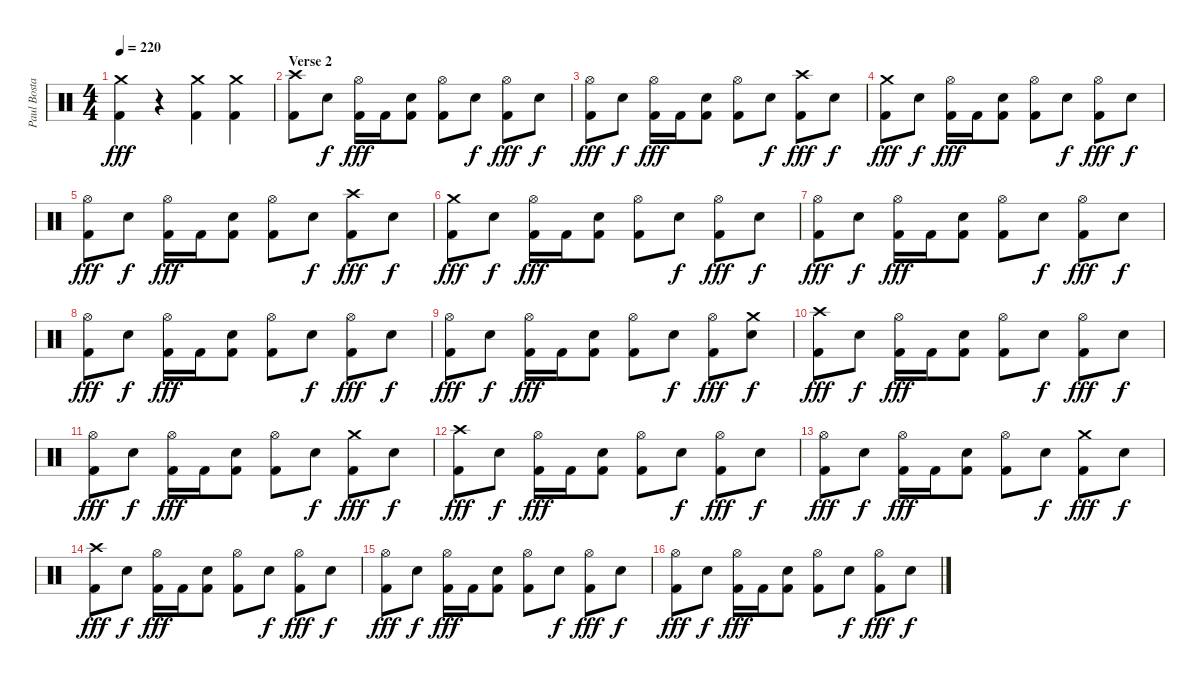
\track ("Paul Bostaph" "Paul Bosta") {instrument percussion}
\staff {score}
\articulation defaults
\ts (4 4)
\tempo 220
\clef neutral
\ks c
("Crash medium (hit)" "Kick (hit) 2").4{dy fff} r.4 ("Crash medium (hit)" "Kick (hit) 2").4 ("Crash medium (hit)" "Kick (hit) 2").4 |
\section ("" "Verse 2")
("Crash high (hit)" "Kick (hit) 2").8 "Snare (hit) 2".8{dy f} ("Hi-Hat (open)" "Kick (hit) 2").16{dy fff} "Kick (hit) 2".16 ("Snare (hit) 2" "Kick (hit) 2").8 ("Hi-Hat (open)" "Kick (hit) 2").8 "Snare (hit) 2".8{dy f} ("Hi-Hat (open)" "Kick (hit) 2").8{dy fff} "Snare (hit) 2".8{dy f} |
("Hi-Hat (open)" "Kick (hit) 2").8{dy fff} "Snare (hit) 2".8{dy f} ("Hi-Hat (open)" "Kick (hit) 2").16{dy fff} "Kick (hit) 2".16 ("Snare (hit) 2" "Kick (hit) 2").8 ("Hi-Hat (open)" "Kick (hit) 2").8 "Snare (hit) 2".8{dy f} ("Crash high (hit)" "Kick (hit) 2").8{dy fff} "Snare (hit) 2".8{dy f} |
("Crash medium (hit)" "Kick (hit) 2").8{dy fff} "Snare (hit) 2".8{dy f} ("Hi-Hat (open)" "Kick (hit) 2").16{dy fff} "Kick (hit) 2".16 ("Snare (hit) 2" "Kick (hit) 2").8 ("Hi-Hat (open)" "Kick (hit) 2").8 "Snare (hit) 2".8{dy f} ("Hi-Hat (open)" "Kick (hit) 2").8{dy fff} "Snare (hit) 2".8{dy f} |
("Hi-Hat (open)" "Kick (hit) 2").8{dy fff} "Snare (hit) 2".8{dy f} ("Hi-Hat (open)" "Kick (hit) 2").16{dy fff} "Kick (hit) 2".16 ("Snare (hit) 2" "Kick (hit) 2").8 ("Hi-Hat (open)" "Kick (hit) 2").8 "Snare (hit) 2".8{dy f} ("Crash high (hit)" "Kick (hit) 2").8{dy fff} "Snare (hit) 2".8{dy f} |
("Crash medium (hit)" "Kick (hit) 2").8{dy fff} "Snare (hit) 2".8{dy f} ("Hi-Hat (open)" "Kick (hit) 2").16{dy fff} "Kick (hit) 2".16 ("Snare (hit) 2" "Kick (hit) 2").8 ("Hi-Hat (open)" "Kick (hit) 2").8 "Snare (hit) 2".8{dy f} ("Hi-Hat (open)" "Kick (hit) 2").8{dy fff} "Snare (hit) 2".8{dy f} |
("Hi-Hat (open)" "Kick (hit) 2").8{dy fff} "Snare (hit) 2".8{dy f} ("Hi-Hat (open)" "Kick (hit) 2").16{dy fff} "Kick (hit) 2".16 ("Snare (hit) 2" "Kick (hit) 2").8 ("Hi-Hat (open)" "Kick (hit) 2").8 "Snare (hit) 2".8{dy f} ("Hi-Hat (open)" "Kick (hit) 2").8{dy fff} "Snare (hit) 2".8{dy f} |
("Hi-Hat (open)" "Kick (hit) 2").8{dy fff} "Snare (hit) 2".8{dy f} ("Hi-Hat (open)" "Kick (hit) 2").16{dy fff} "Kick (hit) 2".16 ("Snare (hit) 2" "Kick (hit) 2").8 ("Hi-Hat (open)" "Kick (hit) 2").8 "Snare (hit) 2".8{dy f} ("Hi-Hat (open)" "Kick (hit) 2").8{dy fff} "Snare (hit) 2".8{dy f} |
("Hi-Hat (open)" "Kick (hit) 2").8{dy fff} "Snare (hit) 2".8{dy f} ("Hi-Hat (open)" "Kick (hit) 2").16{dy fff} "Kick (hit) 2".16 ("Snare (hit) 2" "Kick (hit) 2").8 ("Hi-Hat (open)" "Kick (hit) 2").8 "Snare (hit) 2".8{dy f} ("Hi-Hat (open)" "Kick (hit) 2").8{dy fff} ("Crash medium (hit)" "Snare (hit) 2").8{dy f} |
("Crash high (hit)" "Kick (hit) 2").8{dy fff} "Snare (hit) 2".8{dy f} ("Hi-Hat (open)" "Kick (hit) 2").16{dy fff} "Kick (hit) 2".16 ("Snare (hit) 2" "Kick (hit) 2").8 ("Hi-Hat (open)" "Kick (hit) 2").8 "Snare (hit) 2".8{dy f} ("Hi-Hat (open)" "Kick (hit) 2").8{dy fff} "Snare (hit) 2".8{dy f} |
("Hi-Hat (open)" "Kick (hit) 2").8{dy fff} "Snare (hit) 2".8{dy f} ("Hi-Hat (open)" "Kick (hit) 2").16{dy fff} "Kick (hit) 2".16 ("Snare (hit) 2" "Kick (hit) 2").8 ("Hi-Hat (open)" "Kick (hit) 2").8 "Snare (hit) 2".8{dy f} ("Crash medium (hit)" "Kick (hit) 2").8{dy fff} "Snare (hit) 2".8{dy f} |
("Crash high (hit)" "Kick (hit) 2").8{dy fff} "Snare (hit) 2".8{dy f} ("Hi-Hat (open)" "Kick (hit) 2").16{dy fff} "Kick (hit) 2".16 ("Snare (hit) 2" "Kick (hit) 2").8 ("Hi-Hat (open)" "Kick (hit) 2").8 "Snare (hit) 2".8{dy f} ("Hi-Hat (open)" "Kick (hit) 2").8{dy fff} "Snare (hit) 2".8{dy f} |
("Hi-Hat (open)" "Kick (hit) 2").8{dy fff} "Snare (hit) 2".8{dy f} ("Hi-Hat (open)" "Kick (hit) 2").16{dy fff} "Kick (hit) 2".16 ("Snare (hit) 2" "Kick (hit) 2").8 ("Hi-Hat (open)" "Kick (hit) 2").8 "Snare (hit) 2".8{dy f} ("Crash medium (hit)" "Kick (hit) 2").8{dy fff} "Snare (hit) 2".8{dy f} |
("Crash high (hit)" "Kick (hit) 2").8{dy fff} "Snare (hit) 2".8{dy f} ("Hi-Hat (open)" "Kick (hit) 2").16{dy fff} "Kick (hit) 2".16 ("Snare (hit) 2" "Kick (hit) 2").8 ("Hi-Hat (open)" "Kick (hit) 2").8 "Snare (hit) 2".8{dy f} ("Hi-Hat (open)" "Kick (hit) 2").8{dy fff} "Snare (hit) 2".8{dy f} |
("Hi-Hat (open)" "Kick (hit) 2").8{dy fff} "Snare (hit) 2".8{dy f} ("Hi-Hat (open)" "Kick (hit) 2").16{dy fff} "Kick (hit) 2".16 ("Snare (hit) 2" "Kick (hit) 2").8 ("Hi-Hat (open)" "Kick (hit) 2").8 "Snare (hit) 2".8{dy f} ("Hi-Hat (open)" "Kick (hit) 2").8{dy fff} "Snare (hit) 2".8{dy f} |
("Hi-Hat (open)" "Kick (hit) 2").8{dy fff} "Snare (hit) 2".8{dy f} ("Hi-Hat (open)" "Kick (hit) 2").16{dy fff} "Kick (hit) 2".16 ("Snare (hit) 2" "Kick (hit) 2").8 ("Hi-Hat (open)" "Kick (hit) 2").8 "Snare (hit) 2".8{dy f} ("Hi-Hat (open)" "Kick (hit) 2").8{dy fff} "Snare (hit) 2".8{dy f}
